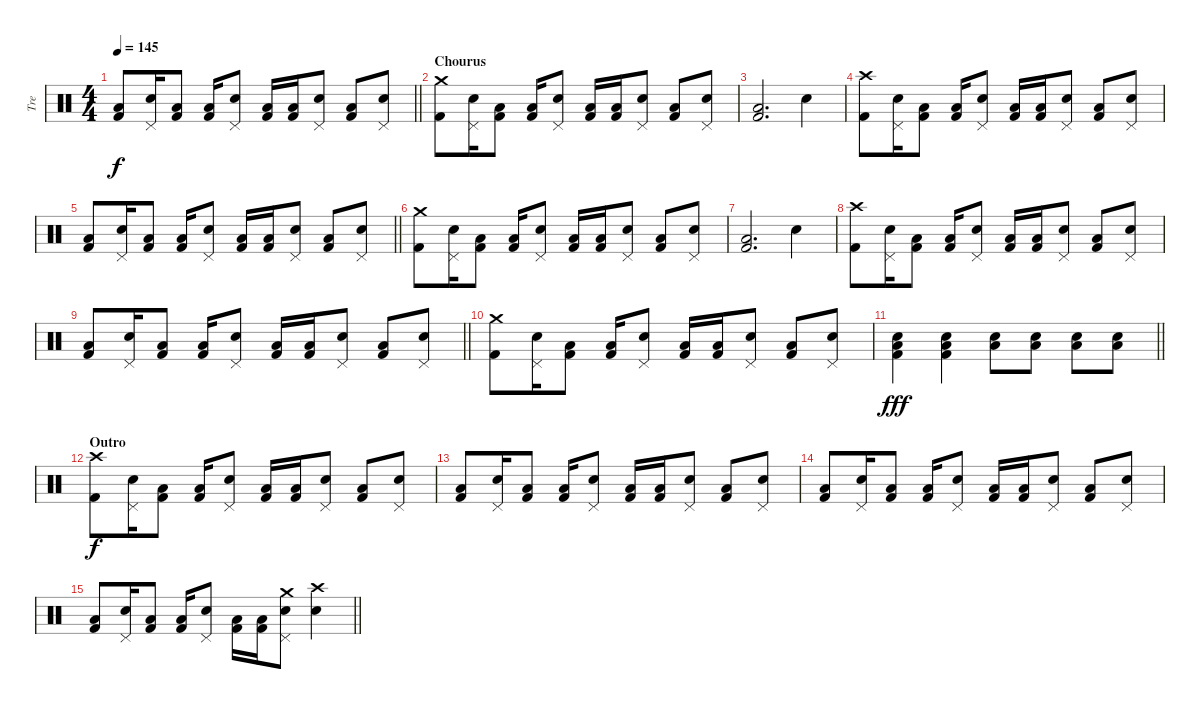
\track ("Tre" "Tre") {instrument percussion}
\staff {score}
\articulation defaults
\ts (4 4)
\tempo 145
\clef neutral
\barLineRight lightlight
\ks c
("Low Floor Tom (hit)" "Kick (hit) 2").8{dy f} ("Snare (hit) 2" "Pedal Hi-Hat (hit)").16 ("Low Floor Tom (hit)" "Kick (hit) 2").8 ("Low Floor Tom (hit)" "Kick (hit) 2").16 ("Snare (hit) 2" "Pedal Hi-Hat (hit)").8 ("Low Floor Tom (hit)" "Kick (hit) 2").16 ("Low Floor Tom (hit)" "Kick (hit) 2").16 ("Snare (hit) 2" "Pedal Hi-Hat (hit)").8 ("Low Floor Tom (hit)" "Kick (hit) 2").8 ("Snare (hit) 2" "Pedal Hi-Hat (hit)").8 |
\section ("" "Chourus")
("Crash medium (hit)" "Kick (hit) 2").8 ("Snare (hit) 2" "Pedal Hi-Hat (hit)").16 ("Low Floor Tom (hit)" "Kick (hit) 2").8 ("Low Floor Tom (hit)" "Kick (hit) 2").16 ("Snare (hit) 2" "Pedal Hi-Hat (hit)").8 ("Low Floor Tom (hit)" "Kick (hit) 2").16 ("Low Floor Tom (hit)" "Kick (hit) 2").16 ("Snare (hit) 2" "Pedal Hi-Hat (hit)").8 ("Low Floor Tom (hit)" "Kick (hit) 2").8 ("Snare (hit) 2" "Pedal Hi-Hat (hit)").8 |
("Low Floor Tom (hit)" "Kick (hit) 2").2{d} "Snare (hit) 2".4 |
("Crash high (hit)" "Kick (hit) 2").8 ("Snare (hit) 2" "Pedal Hi-Hat (hit)").16 ("Low Floor Tom (hit)" "Kick (hit) 2").8 ("Low Floor Tom (hit)" "Kick (hit) 2").16 ("Snare (hit) 2" "Pedal Hi-Hat (hit)").8 ("Low Floor Tom (hit)" "Kick (hit) 2").16 ("Low Floor Tom (hit)" "Kick (hit) 2").16 ("Snare (hit) 2" "Pedal Hi-Hat (hit)").8 ("Low Floor Tom (hit)" "Kick (hit) 2").8 ("Snare (hit) 2" "Pedal Hi-Hat (hit)").8 |
\barLineRight lightlight
("Low Floor Tom (hit)" "Kick (hit) 2").8 ("Snare (hit) 2" "Pedal Hi-Hat (hit)").16 ("Low Floor Tom (hit)" "Kick (hit) 2").8 ("Low Floor Tom (hit)" "Kick (hit) 2").16 ("Snare (hit) 2" "Pedal Hi-Hat (hit)").8 ("Low Floor Tom (hit)" "Kick (hit) 2").16 ("Low Floor Tom (hit)" "Kick (hit) 2").16 ("Snare (hit) 2" "Pedal Hi-Hat (hit)").8 ("Low Floor Tom (hit)" "Kick (hit) 2").8 ("Snare (hit) 2" "Pedal Hi-Hat (hit)").8 |
("Crash medium (hit)" "Kick (hit) 2").8 ("Snare (hit) 2" "Pedal Hi-Hat (hit)").16 ("Low Floor Tom (hit)" "Kick (hit) 2").8 ("Low Floor Tom (hit)" "Kick (hit) 2").16 ("Snare (hit) 2" "Pedal Hi-Hat (hit)").8 ("Low Floor Tom (hit)" "Kick (hit) 2").16 ("Low Floor Tom (hit)" "Kick (hit) 2").16 ("Snare (hit) 2" "Pedal Hi-Hat (hit)").8 ("Low Floor Tom (hit)" "Kick (hit) 2").8 ("Snare (hit) 2" "Pedal Hi-Hat (hit)").8 |
("Low Floor Tom (hit)" "Kick (hit) 2").2{d} "Snare (hit) 2".4 |
("Crash high (hit)" "Kick (hit) 2").8 ("Snare (hit) 2" "Pedal Hi-Hat (hit)").16 ("Low Floor Tom (hit)" "Kick (hit) 2").8 ("Low Floor Tom (hit)" "Kick (hit) 2").16 ("Snare (hit) 2" "Pedal Hi-Hat (hit)").8 ("Low Floor Tom (hit)" "Kick (hit) 2").16 ("Low Floor Tom (hit)" "Kick (hit) 2").16 ("Snare (hit) 2" "Pedal Hi-Hat (hit)").8 ("Low Floor Tom (hit)" "Kick (hit) 2").8 ("Snare (hit) 2" "Pedal Hi-Hat (hit)").8 |
\barLineRight lightlight
("Low Floor Tom (hit)" "Kick (hit) 2").8 ("Snare (hit) 2" "Pedal Hi-Hat (hit)").16 ("Low Floor Tom (hit)" "Kick (hit) 2").8 ("Low Floor Tom (hit)" "Kick (hit) 2").16 ("Snare (hit) 2" "Pedal Hi-Hat (hit)").8 ("Low Floor Tom (hit)" "Kick (hit) 2").16 ("Low Floor Tom (hit)" "Kick (hit) 2").16 ("Snare (hit) 2" "Pedal Hi-Hat (hit)").8 ("Low Floor Tom (hit)" "Kick (hit) 2").8 ("Snare (hit) 2" "Pedal Hi-Hat (hit)").8 |
("Crash medium (hit)" "Kick (hit) 2").8 ("Snare (hit) 2" "Pedal Hi-Hat (hit)").16 ("Low Floor Tom (hit)" "Kick (hit) 2").8 ("Low Floor Tom (hit)" "Kick (hit) 2").16 ("Snare (hit) 2" "Pedal Hi-Hat (hit)").8 ("Low Floor Tom (hit)" "Kick (hit) 2").16 ("Low Floor Tom (hit)" "Kick (hit) 2").16 ("Snare (hit) 2" "Pedal Hi-Hat (hit)").8 ("Low Floor Tom (hit)" "Kick (hit) 2").8 ("Snare (hit) 2" "Pedal Hi-Hat (hit)").8 |
\barLineRight lightlight
("Low Floor Tom (hit)" "Snare (hit) 2" "Kick (hit) 2").4{dy fff} ("Low Floor Tom (hit)" "Snare (hit) 2" "Kick (hit) 2").4 ("Low Floor Tom (hit)" "Snare (hit) 2").8 ("Low Floor Tom (hit)" "Snare (hit) 2").8 ("Low Floor Tom (hit)" "Snare (hit) 2").8 ("Low Floor Tom (hit)" "Snare (hit) 2").8 |
\section ("" "Outro")
("Crash high (hit)" "Kick (hit) 2").8{dy f} ("Snare (hit) 2" "Pedal Hi-Hat (hit)").16 ("Low Floor Tom (hit)" "Kick (hit) 2").8 ("Low Floor Tom (hit)" "Kick (hit) 2").16 ("Snare (hit) 2" "Pedal Hi-Hat (hit)").8 ("Low Floor Tom (hit)" "Kick (hit) 2").16 ("Low Floor Tom (hit)" "Kick (hit) 2").16 ("Snare (hit) 2" "Pedal Hi-Hat (hit)").8 ("Low Floor Tom (hit)" "Kick (hit) 2").8 ("Snare (hit) 2" "Pedal Hi-Hat (hit)").8 |
("Low Floor Tom (hit)" "Kick (hit) 2").8 ("Snare (hit) 2" "Pedal Hi-Hat (hit)").16 ("Low Floor Tom (hit)" "Kick (hit) 2").8 ("Low Floor Tom (hit)" "Kick (hit) 2").16 ("Snare (hit) 2" "Pedal Hi-Hat (hit)").8 ("Low Floor Tom (hit)" "Kick (hit) 2").16 ("Low Floor Tom (hit)" "Kick (hit) 2").16 ("Snare (hit) 2" "Pedal Hi-Hat (hit)").8 ("Low Floor Tom (hit)" "Kick (hit) 2").8 ("Snare (hit) 2" "Pedal Hi-Hat (hit)").8 |
("Low Floor Tom (hit)" "Kick (hit) 2").8 ("Snare (hit) 2" "Pedal Hi-Hat (hit)").16 ("Low Floor Tom (hit)" "Kick (hit) 2").8 ("Low Floor Tom (hit)" "Kick (hit) 2").16 ("Snare (hit) 2" "Pedal Hi-Hat (hit)").8 ("Low Floor Tom (hit)" "Kick (hit) 2").16 ("Low Floor Tom (hit)" "Kick (hit) 2").16 ("Snare (hit) 2" "Pedal Hi-Hat (hit)").8 ("Low Floor Tom (hit)" "Kick (hit) 2").8 ("Snare (hit) 2" "Pedal Hi-Hat (hit)").8 |
\barLineRight lightlight
("Low Floor Tom (hit)" "Kick (hit) 2").8 ("Snare (hit) 2" "Pedal Hi-Hat (hit)").16 ("Low Floor Tom (hit)" "Kick (hit) 2").8 ("Low Floor Tom (hit)" "Kick (hit) 2").16 ("Snare (hit) 2" "Pedal Hi-Hat (hit)").8 ("Low Floor Tom (hit)" "Kick (hit) 2").16 ("Low Floor Tom (hit)" "Kick (hit) 2").16 ("Crash medium (hit)" "Snare (hit) 2" "Pedal Hi-Hat (hit)").8 ("Crash high (hit)" "Snare (hit) 2").4
